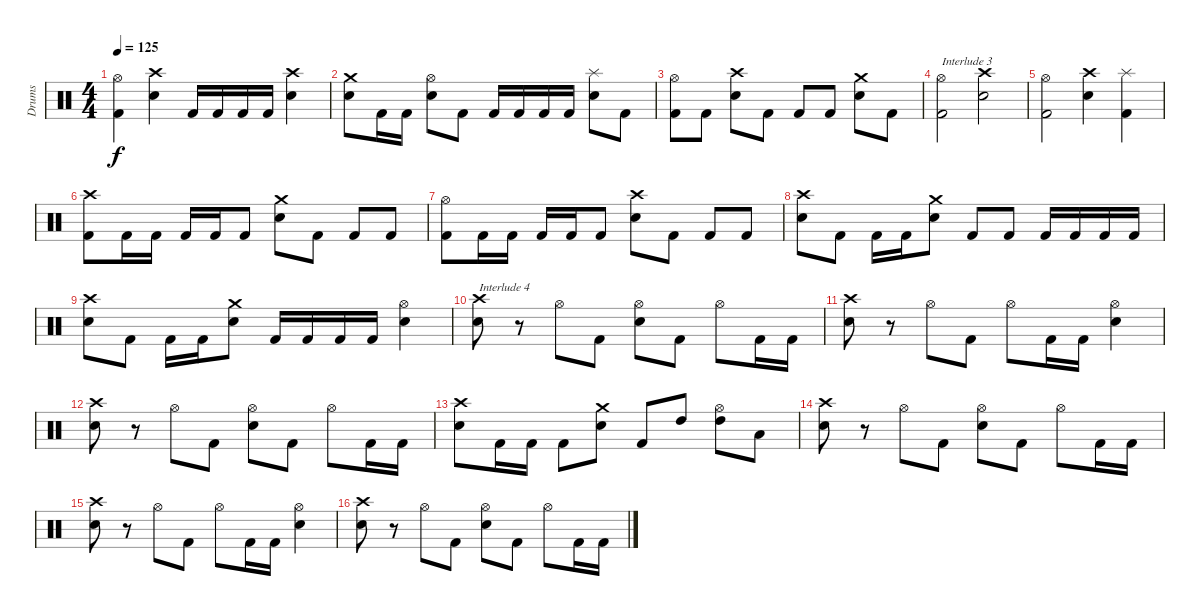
\track ("Drums" "Drums") {instrument percussion}
\staff {score}
\articulation defaults
\ts (4 4)
\tempo 125
\clef neutral
\ks c
("Hi-Hat (open)" "Kick (hit) 2").4{dy f} ("Crash high (hit)" "Snare (hit) 2").4 "Kick (hit) 2".16 "Kick (hit) 2".16 "Kick (hit) 2".16 "Kick (hit) 2".16 ("Crash high (hit)" "Snare (hit) 2").4 |
("Crash medium (hit)" "Snare (hit) 2").8 "Kick (hit) 2".16 "Kick (hit) 2".16 ("Hi-Hat (open)" "Snare (hit) 2").8 "Kick (hit) 2".8 "Kick (hit) 2".16 "Kick (hit) 2".16 "Kick (hit) 2".16 "Kick (hit) 2".16 ("Splash (hit)" "Snare (hit) 2").8 "Kick (hit) 2".8 |
("Hi-Hat (open)" "Kick (hit) 2").8 "Kick (hit) 2".8 ("Crash high (hit)" "Snare (hit) 2").8 "Kick (hit) 2".8 "Kick (hit) 2".8 "Kick (hit) 2".8 ("Crash medium (hit)" "Snare (hit) 2").8 "Kick (hit) 2".8 |
("Hi-Hat (open)" "Kick (hit) 2").2{txt "Interlude 3"} ("Crash high (hit)" "Snare (hit) 2").2 |
("Hi-Hat (open)" "Kick (hit) 2").2 ("Crash high (hit)" "Snare (hit) 2").4 ("Splash (hit)" "Kick (hit) 2").4 |
("Crash high (hit)" "Kick (hit) 2").8 "Kick (hit) 2".16 "Kick (hit) 2".16 "Kick (hit) 2".16 "Kick (hit) 2".16 "Kick (hit) 2".8 ("Crash medium (hit)" "Snare (hit) 2").8 "Kick (hit) 2".8 "Kick (hit) 2".8 "Kick (hit) 2".8 |
("Hi-Hat (open)" "Kick (hit) 2").8 "Kick (hit) 2".16 "Kick (hit) 2".16 "Kick (hit) 2".16 "Kick (hit) 2".16 "Kick (hit) 2".8 ("Crash high (hit)" "Snare (hit) 2").8 "Kick (hit) 2".8 "Kick (hit) 2".8 "Kick (hit) 2".8 |
("Crash high (hit)" "Snare (hit) 2").8 "Kick (hit) 2".8 "Kick (hit) 2".16 "Kick (hit) 2".16 ("Crash medium (hit)" "Snare (hit) 2").8 "Kick (hit) 2".8 "Kick (hit) 2".8 "Kick (hit) 2".16 "Kick (hit) 2".16 "Kick (hit) 2".16 "Kick (hit) 2".16 |
("Crash high (hit)" "Snare (hit) 2").8 "Kick (hit) 2".8 "Kick (hit) 2".16 "Kick (hit) 2".16 ("Crash medium (hit)" "Snare (hit) 2").8 "Kick (hit) 2".16 "Kick (hit) 2".16 "Kick (hit) 2".16 "Kick (hit) 2".16 ("Hi-Hat (open)" "Snare (hit) 2").4 |
("Crash high (hit)" "Snare (hit) 2").8{txt "Interlude 4"} r.8 "Hi-Hat (open)".8 "Kick (hit) 2".8 ("Hi-Hat (open)" "Snare (hit) 2").8 "Kick (hit) 2".8 "Hi-Hat (open)".8 "Kick (hit) 2".16 "Kick (hit) 2".16 |
("Crash high (hit)" "Snare (hit) 2").8 r.8 "Hi-Hat (open)".8 "Kick (hit) 2".8 "Hi-Hat (open)".8 "Kick (hit) 2".16 "Kick (hit) 2".16 ("Hi-Hat (open)" "Snare (hit) 2").4 |
("Crash high (hit)" "Snare (hit) 2").8 r.8 "Hi-Hat (open)".8 "Kick (hit) 2".8 ("Hi-Hat (open)" "Snare (hit) 2").8 "Kick (hit) 2".8 "Hi-Hat (open)".8 "Kick (hit) 2".16 "Kick (hit) 2".16 |
("Crash high (hit)" "Snare (hit) 2").8 "Kick (hit) 2".16 "Kick (hit) 2".16 "Kick (hit) 2".8 ("Crash medium (hit)" "Snare (hit) 2").8 "Kick (hit) 2".8 "High Tom (hit)".8 ("Hi-Hat (open)" "High Tom (hit)").8 "Low Tom (hit)".8 |
("Crash high (hit)" "Snare (hit) 2").8 r.8 "Hi-Hat (open)".8 "Kick (hit) 2".8 ("Hi-Hat (open)" "Snare (hit) 2").8 "Kick (hit) 2".8 "Hi-Hat (open)".8 "Kick (hit) 2".16 "Kick (hit) 2".16 |
("Crash high (hit)" "Snare (hit) 2").8 r.8 "Hi-Hat (open)".8 "Kick (hit) 2".8 "Hi-Hat (open)".8 "Kick (hit) 2".16 "Kick (hit) 2".16 ("Hi-Hat (open)" "Snare (hit) 2").4 |
("Crash high (hit)" "Snare (hit) 2").8 r.8 "Hi-Hat (open)".8 "Kick (hit) 2".8 ("Hi-Hat (open)" "Snare (hit) 2").8 "Kick (hit) 2".8 "Hi-Hat (open)".8 "Kick (hit) 2".16 "Kick (hit) 2".16
